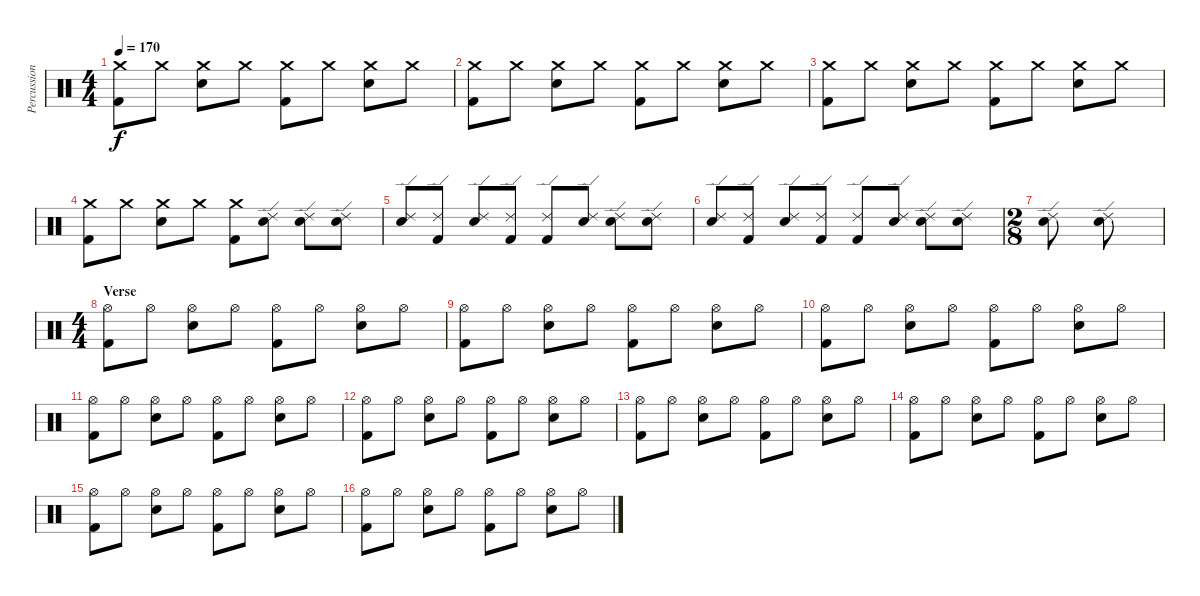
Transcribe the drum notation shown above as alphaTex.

\track ("Percussion" "Percussion") {instrument percussion}
\staff {score}
\articulation defaults
\ts (4 4)
\tempo 170
\clef neutral
\ks c
("Crash medium (hit)" "Kick (hit) 2").8{dy f} "Crash medium (hit)".8 ("Crash medium (hit)" "Snare (hit) 2").8 "Crash medium (hit)".8 ("Crash medium (hit)" "Kick (hit) 2").8 "Crash medium (hit)".8 ("Crash medium (hit)" "Snare (hit) 2").8 "Crash medium (hit)".8 |
("Crash medium (hit)" "Kick (hit) 2").8 "Crash medium (hit)".8 ("Crash medium (hit)" "Snare (hit) 2").8 "Crash medium (hit)".8 ("Crash medium (hit)" "Kick (hit) 2").8 "Crash medium (hit)".8 ("Crash medium (hit)" "Snare (hit) 2").8 "Crash medium (hit)".8 |
("Crash medium (hit)" "Kick (hit) 2").8 "Crash medium (hit)".8 ("Crash medium (hit)" "Snare (hit) 2").8 "Crash medium (hit)".8 ("Crash medium (hit)" "Kick (hit) 2").8 "Crash medium (hit)".8 ("Crash medium (hit)" "Snare (hit) 2").8 "Crash medium (hit)".8 |
("Crash medium (hit)" "Kick (hit) 2").8 "Crash medium (hit)".8 ("Crash medium (hit)" "Snare (hit) 2").8 "Crash medium (hit)".8 ("Crash medium (hit)" "Kick (hit) 2").8 ("Ride (edge) 2" "Snare (hit) 2").8 ("Ride (edge) 2" "Snare (hit) 2").8 ("Ride (edge) 2" "Snare (hit) 2").8 |
("Ride (edge) 2" "Snare (hit) 2").8 ("Ride (edge) 2" "Kick (hit) 2").8 ("Ride (edge) 2" "Snare (hit) 2").8 ("Ride (edge) 2" "Kick (hit) 2").8 ("Ride (edge) 2" "Kick (hit) 2").8 ("Ride (edge) 2" "Snare (hit) 2").8 ("Ride (edge) 2" "Snare (hit) 2").8 ("Ride (edge) 2" "Snare (hit) 2").8 |
("Ride (edge) 2" "Snare (hit) 2").8 ("Ride (edge) 2" "Kick (hit) 2").8 ("Ride (edge) 2" "Snare (hit) 2").8 ("Ride (edge) 2" "Kick (hit) 2").8 ("Ride (edge) 2" "Kick (hit) 2").8 ("Ride (edge) 2" "Snare (hit) 2").8 ("Ride (edge) 2" "Snare (hit) 2").8 ("Ride (edge) 2" "Snare (hit) 2").8 |
\ts (2 8)
("Ride (edge) 2" "Snare (hit) 2").8 ("Ride (edge) 2" "Snare (hit) 2").8 |
\ts (4 4)
\section ("" "Verse")
("Hi-Hat (open)" "Kick (hit) 2").8 "Hi-Hat (open)".8 ("Hi-Hat (open)" "Snare (hit) 2").8 "Hi-Hat (open)".8 ("Hi-Hat (open)" "Kick (hit) 2").8 "Hi-Hat (open)".8 ("Hi-Hat (open)" "Snare (hit) 2").8 "Hi-Hat (open)".8 |
("Hi-Hat (open)" "Kick (hit) 2").8 "Hi-Hat (open)".8 ("Hi-Hat (open)" "Snare (hit) 2").8 "Hi-Hat (open)".8 ("Hi-Hat (open)" "Kick (hit) 2").8 "Hi-Hat (open)".8 ("Hi-Hat (open)" "Snare (hit) 2").8 "Hi-Hat (open)".8 |
("Hi-Hat (open)" "Kick (hit) 2").8 "Hi-Hat (open)".8 ("Hi-Hat (open)" "Snare (hit) 2").8 "Hi-Hat (open)".8 ("Hi-Hat (open)" "Kick (hit) 2").8 "Hi-Hat (open)".8 ("Hi-Hat (open)" "Snare (hit) 2").8 "Hi-Hat (open)".8 |
("Hi-Hat (open)" "Kick (hit) 2").8 "Hi-Hat (open)".8 ("Hi-Hat (open)" "Snare (hit) 2").8 "Hi-Hat (open)".8 ("Hi-Hat (open)" "Kick (hit) 2").8 "Hi-Hat (open)".8 ("Hi-Hat (open)" "Snare (hit) 2").8 "Hi-Hat (open)".8 |
("Hi-Hat (open)" "Kick (hit) 2").8 "Hi-Hat (open)".8 ("Hi-Hat (open)" "Snare (hit) 2").8 "Hi-Hat (open)".8 ("Hi-Hat (open)" "Kick (hit) 2").8 "Hi-Hat (open)".8 ("Hi-Hat (open)" "Snare (hit) 2").8 "Hi-Hat (open)".8 |
("Hi-Hat (open)" "Kick (hit) 2").8 "Hi-Hat (open)".8 ("Hi-Hat (open)" "Snare (hit) 2").8 "Hi-Hat (open)".8 ("Hi-Hat (open)" "Kick (hit) 2").8 "Hi-Hat (open)".8 ("Hi-Hat (open)" "Snare (hit) 2").8 "Hi-Hat (open)".8 |
("Hi-Hat (open)" "Kick (hit) 2").8 "Hi-Hat (open)".8 ("Hi-Hat (open)" "Snare (hit) 2").8 "Hi-Hat (open)".8 ("Hi-Hat (open)" "Kick (hit) 2").8 "Hi-Hat (open)".8 ("Hi-Hat (open)" "Snare (hit) 2").8 "Hi-Hat (open)".8 |
("Hi-Hat (open)" "Kick (hit) 2").8 "Hi-Hat (open)".8 ("Hi-Hat (open)" "Snare (hit) 2").8 "Hi-Hat (open)".8 ("Hi-Hat (open)" "Kick (hit) 2").8 "Hi-Hat (open)".8 ("Hi-Hat (open)" "Snare (hit) 2").8 "Hi-Hat (open)".8 |
("Hi-Hat (open)" "Kick (hit) 2").8 "Hi-Hat (open)".8 ("Hi-Hat (open)" "Snare (hit) 2").8 "Hi-Hat (open)".8 ("Hi-Hat (open)" "Kick (hit) 2").8 "Hi-Hat (open)".8 ("Hi-Hat (open)" "Snare (hit) 2").8 "Hi-Hat (open)".8
